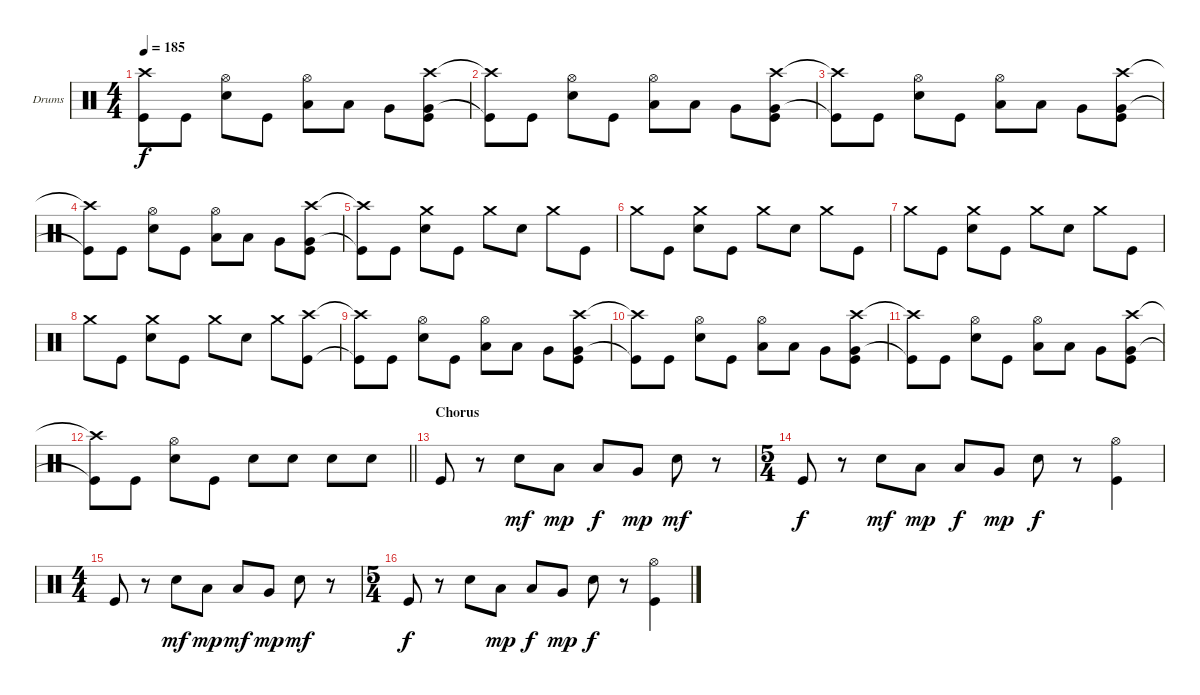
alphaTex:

\bracketExtendMode groupsimilarinstruments
\firstSystemTrackNameOrientation horizontal
\otherSystemsTrackNameOrientation horizontal
\track ("Drumkit" "Drums") {instrument percussion}
\staff {score}
\articulation defaults
\ts (4 4)
\tempo 185
\clef neutral
\ks c
("Crash high (hit)"{t} "Kick (hit)"{t}).8{dy f} "Kick (hit)".8 ("Hi-Hat (open)" "Snare (hit) 2").8 "Kick (hit)".8 ("Hi-Hat (open)" "Low Tom (hit)").8 "Low Tom (hit)".8 "Very Low Tom (hit)".8 ("Crash high (hit)" "Very Low Tom (hit)" "Kick (hit)").8 |
("Crash high (hit)"{t} "Kick (hit)"{t}).8 "Kick (hit)".8 ("Hi-Hat (open)" "Snare (hit) 2").8 "Kick (hit)".8 ("Hi-Hat (open)" "Low Tom (hit)").8 "Low Tom (hit)".8 "Very Low Tom (hit)".8 ("Crash high (hit)" "Very Low Tom (hit)" "Kick (hit)").8 |
("Crash high (hit)"{t} "Kick (hit)"{t}).8 "Kick (hit)".8 ("Hi-Hat (open)" "Snare (hit) 2").8 "Kick (hit)".8 ("Hi-Hat (open)" "Low Tom (hit)").8 "Low Tom (hit)".8 "Very Low Tom (hit)".8 ("Crash high (hit)" "Very Low Tom (hit)" "Kick (hit)").8 |
("Crash high (hit)"{t} "Kick (hit)"{t}).8 "Kick (hit)".8 ("Hi-Hat (open)" "Snare (hit) 2").8 "Kick (hit)".8 ("Hi-Hat (open)" "Low Tom (hit)").8 "Low Tom (hit)".8 "Very Low Tom (hit)".8 ("Crash high (hit)" "Very Low Tom (hit)" "Kick (hit)").8 |
("Crash high (hit)"{t} "Kick (hit)"{t}).8 "Kick (hit)".8 ("Crash medium (hit)" "Snare (hit) 2").8 "Kick (hit)".8 "Crash medium (hit)".8 "Snare (hit) 2".8 "Crash medium (hit)".8 "Kick (hit)".8 |
"Crash medium (hit)".8 "Kick (hit)".8 ("Crash medium (hit)" "Snare (hit) 2").8 "Kick (hit)".8 "Crash medium (hit)".8 "Snare (hit) 2".8 "Crash medium (hit)".8 "Kick (hit)".8 |
"Crash medium (hit)".8 "Kick (hit)".8 ("Crash medium (hit)" "Snare (hit) 2").8 "Kick (hit)".8 "Crash medium (hit)".8 "Snare (hit) 2".8 "Crash medium (hit)".8 "Kick (hit)".8 |
"Crash medium (hit)".8 "Kick (hit)".8 ("Crash medium (hit)" "Snare (hit) 2").8 "Kick (hit)".8 "Crash medium (hit)".8 "Snare (hit) 2".8 "Crash medium (hit)".8 ("Crash high (hit)" "Kick (hit)").8 |
("Crash high (hit)"{t} "Kick (hit)"{t}).8 "Kick (hit)".8 ("Hi-Hat (open)" "Snare (hit) 2").8 "Kick (hit)".8 ("Hi-Hat (open)" "Low Tom (hit)").8 "Low Tom (hit)".8 "Very Low Tom (hit)".8 ("Crash high (hit)" "Very Low Tom (hit)" "Kick (hit)").8 |
("Crash high (hit)"{t} "Kick (hit)"{t}).8 "Kick (hit)".8 ("Hi-Hat (open)" "Snare (hit) 2").8 "Kick (hit)".8 ("Hi-Hat (open)" "Low Tom (hit)").8 "Low Tom (hit)".8 "Very Low Tom (hit)".8 ("Crash high (hit)" "Very Low Tom (hit)" "Kick (hit)").8 |
("Crash high (hit)"{t} "Kick (hit)"{t}).8 "Kick (hit)".8 ("Hi-Hat (open)" "Snare (hit) 2").8 "Kick (hit)".8 ("Hi-Hat (open)" "Low Tom (hit)").8 "Low Tom (hit)".8 "Very Low Tom (hit)".8 ("Crash high (hit)" "Very Low Tom (hit)" "Kick (hit)").8 |
\barLineRight lightlight
("Crash high (hit)"{t} "Kick (hit)"{t}).8 "Kick (hit)".8 ("Hi-Hat (open)" "Snare (hit) 2").8 "Kick (hit)".8 "Snare (hit) 2".8 "Snare (hit) 2".8 "Snare (hit) 2".8 "Snare (hit) 2".8 |
\section ("" "Chorus")
"Kick (hit)".8 r.8 "Snare (hit) 2".8{dy mf} "Low Tom (hit)".8{dy mp} "Low Tom (hit)".8{dy f} "Very Low Tom (hit)".8{dy mp} "Snare (hit) 2".8{dy mf} r.8 |
\ts (5 4)
\beaming (8 2 2 2 4)
"Kick (hit)".8{dy f} r.8 "Snare (hit) 2".8{dy mf} "Low Tom (hit)".8{dy mp} "Low Tom (hit)".8{dy f} "Very Low Tom (hit)".8{dy mp} "Snare (hit) 2".8{dy f} r.8 ("Hi-Hat (open)" "Kick (hit)").4 |
\ts (4 4)
\beaming (8 2 2 2 2)
"Kick (hit)".8 r.8 "Snare (hit) 2".8{dy mf} "Low Tom (hit)".8{dy mp} "Low Tom (hit)".8{dy mf} "Very Low Tom (hit)".8{dy mp} "Snare (hit) 2".8{dy mf} r.8 |
\ts (5 4)
\beaming (8 2 2 2 4)
"Kick (hit)".8{dy f} r.8 "Snare (hit) 2".8 "Low Tom (hit)".8{dy mp} "Low Tom (hit)".8{dy f} "Very Low Tom (hit)".8{dy mp} "Snare (hit) 2".8{dy f} r.8 ("Hi-Hat (open)" "Kick (hit)").4
